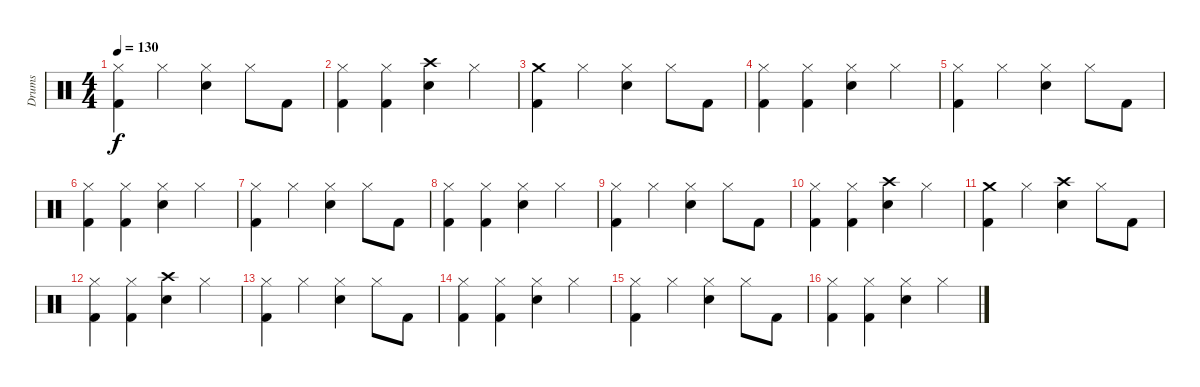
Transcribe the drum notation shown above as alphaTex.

\track ("Drums" "Drums") {instrument percussion}
\staff {score}
\articulation defaults
\ts (4 4)
\tempo 130
\clef neutral
\ks c
("Hi-Hat (closed)" "Kick (hit) 2").4{dy f} "Hi-Hat (closed)".4 ("Hi-Hat (closed)" "Snare (hit) 2").4 "Hi-Hat (closed)".8 "Kick (hit) 2".8 |
("Hi-Hat (closed)" "Kick (hit) 2").4 ("Hi-Hat (closed)" "Kick (hit) 2").4 ("Crash high (hit)" "Snare (hit) 2").4 "Hi-Hat (closed)".4 |
("Crash medium (hit)" "Kick (hit) 2").4 "Hi-Hat (closed)".4 ("Hi-Hat (closed)" "Snare (hit) 2").4 "Hi-Hat (closed)".8 "Kick (hit) 2".8 |
("Hi-Hat (closed)" "Kick (hit) 2").4 ("Hi-Hat (closed)" "Kick (hit) 2").4 ("Hi-Hat (closed)" "Snare (hit) 2").4 "Hi-Hat (closed)".4 |
("Hi-Hat (closed)" "Kick (hit) 2").4 "Hi-Hat (closed)".4 ("Hi-Hat (closed)" "Snare (hit) 2").4 "Hi-Hat (closed)".8 "Kick (hit) 2".8 |
("Hi-Hat (closed)" "Kick (hit) 2").4 ("Hi-Hat (closed)" "Kick (hit) 2").4 ("Hi-Hat (closed)" "Snare (hit) 2").4 "Hi-Hat (closed)".4 |
("Hi-Hat (closed)" "Kick (hit) 2").4 "Hi-Hat (closed)".4 ("Hi-Hat (closed)" "Snare (hit) 2").4 "Hi-Hat (closed)".8 "Kick (hit) 2".8 |
("Hi-Hat (closed)" "Kick (hit) 2").4 ("Hi-Hat (closed)" "Kick (hit) 2").4 ("Hi-Hat (closed)" "Snare (hit) 2").4 "Hi-Hat (closed)".4 |
("Hi-Hat (closed)" "Kick (hit) 2").4 "Hi-Hat (closed)".4 ("Hi-Hat (closed)" "Snare (hit) 2").4 "Hi-Hat (closed)".8 "Kick (hit) 2".8 |
("Hi-Hat (closed)" "Kick (hit) 2").4 ("Hi-Hat (closed)" "Kick (hit) 2").4 ("Crash high (hit)" "Snare (hit) 2").4 "Hi-Hat (closed)".4 |
("Crash medium (hit)" "Kick (hit) 2").4{volume 13} "Hi-Hat (closed)".4 ("Crash high (hit)" "Snare (hit) 2").4 "Hi-Hat (closed)".8 "Kick (hit) 2".8 |
("Hi-Hat (closed)" "Kick (hit) 2").4{volume 12} ("Hi-Hat (closed)" "Kick (hit) 2").4 ("Crash high (hit)" "Snare (hit) 2").4 "Hi-Hat (closed)".4 |
("Hi-Hat (closed)" "Kick (hit) 2").4{volume 11} "Hi-Hat (closed)".4 ("Hi-Hat (closed)" "Snare (hit) 2").4 "Hi-Hat (closed)".8 "Kick (hit) 2".8 |
("Hi-Hat (closed)" "Kick (hit) 2").4{volume 10} ("Hi-Hat (closed)" "Kick (hit) 2").4 ("Hi-Hat (closed)" "Snare (hit) 2").4 "Hi-Hat (closed)".4 |
("Hi-Hat (closed)" "Kick (hit) 2").4{volume 9} "Hi-Hat (closed)".4 ("Hi-Hat (closed)" "Snare (hit) 2").4 "Hi-Hat (closed)".8 "Kick (hit) 2".8 |
("Hi-Hat (closed)" "Kick (hit) 2").4{volume 8} ("Hi-Hat (closed)" "Kick (hit) 2").4 ("Hi-Hat (closed)" "Snare (hit) 2").4 "Hi-Hat (closed)".4
